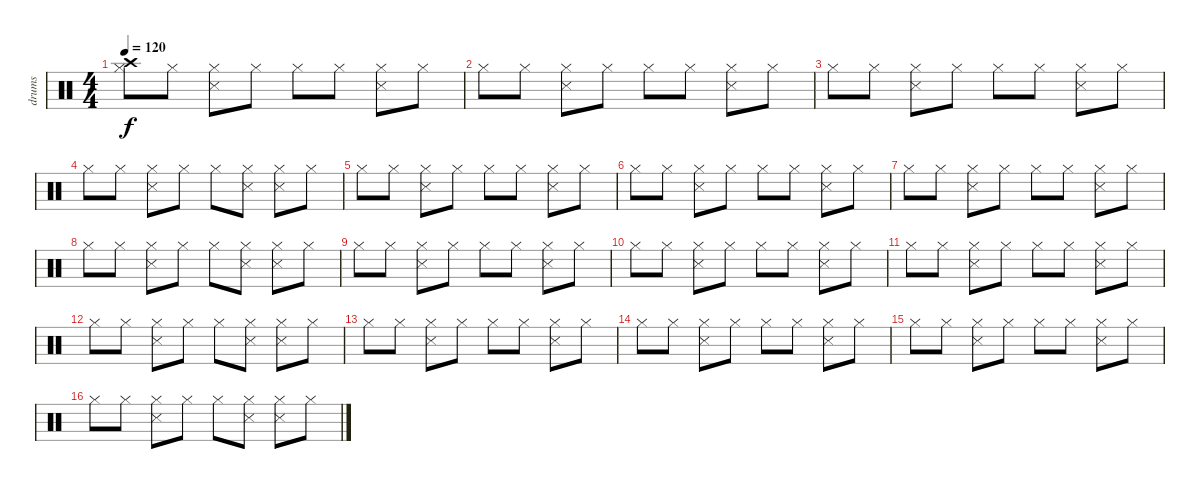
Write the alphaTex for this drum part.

\track ("drums" "drums") {instrument percussion}
\staff {score}
\articulation defaults
\ts (4 4)
\tempo 120
\clef neutral
\ks c
("Crash high (hit)" "Hi-Hat (closed)").8{dy f} "Hi-Hat (closed)".8 ("Snare (side stick) 3" "Hi-Hat (closed)").8 "Hi-Hat (closed)".8 "Hi-Hat (closed)".8 "Hi-Hat (closed)".8 ("Snare (side stick) 3" "Hi-Hat (closed)").8 "Hi-Hat (closed)".8 |
"Hi-Hat (closed)".8 "Hi-Hat (closed)".8 ("Snare (side stick) 3" "Hi-Hat (closed)").8 "Hi-Hat (closed)".8 "Hi-Hat (closed)".8 "Hi-Hat (closed)".8 ("Snare (side stick) 3" "Hi-Hat (closed)").8 "Hi-Hat (closed)".8 |
"Hi-Hat (closed)".8 "Hi-Hat (closed)".8 ("Snare (side stick) 3" "Hi-Hat (closed)").8 "Hi-Hat (closed)".8 "Hi-Hat (closed)".8 "Hi-Hat (closed)".8 ("Snare (side stick) 3" "Hi-Hat (closed)").8 "Hi-Hat (closed)".8 |
"Hi-Hat (closed)".8 "Hi-Hat (closed)".8 ("Snare (side stick) 3" "Hi-Hat (closed)").8 "Hi-Hat (closed)".8 "Hi-Hat (closed)".8 ("Snare (side stick) 3" "Hi-Hat (closed)").8 ("Snare (side stick) 3" "Hi-Hat (closed)").8 "Hi-Hat (closed)".8 |
"Hi-Hat (closed)".8 "Hi-Hat (closed)".8 ("Snare (side stick) 3" "Hi-Hat (closed)").8 "Hi-Hat (closed)".8 "Hi-Hat (closed)".8 "Hi-Hat (closed)".8 ("Snare (side stick) 3" "Hi-Hat (closed)").8 "Hi-Hat (closed)".8 |
"Hi-Hat (closed)".8 "Hi-Hat (closed)".8 ("Snare (side stick) 3" "Hi-Hat (closed)").8 "Hi-Hat (closed)".8 "Hi-Hat (closed)".8 "Hi-Hat (closed)".8 ("Snare (side stick) 3" "Hi-Hat (closed)").8 "Hi-Hat (closed)".8 |
"Hi-Hat (closed)".8 "Hi-Hat (closed)".8 ("Snare (side stick) 3" "Hi-Hat (closed)").8 "Hi-Hat (closed)".8 "Hi-Hat (closed)".8 "Hi-Hat (closed)".8 ("Snare (side stick) 3" "Hi-Hat (closed)").8 "Hi-Hat (closed)".8 |
"Hi-Hat (closed)".8 "Hi-Hat (closed)".8 ("Snare (side stick) 3" "Hi-Hat (closed)").8 "Hi-Hat (closed)".8 "Hi-Hat (closed)".8 ("Snare (side stick) 3" "Hi-Hat (closed)").8 ("Snare (side stick) 3" "Hi-Hat (closed)").8 "Hi-Hat (closed)".8 |
"Hi-Hat (closed)".8 "Hi-Hat (closed)".8 ("Snare (side stick) 3" "Hi-Hat (closed)").8 "Hi-Hat (closed)".8 "Hi-Hat (closed)".8 "Hi-Hat (closed)".8 ("Snare (side stick) 3" "Hi-Hat (closed)").8 "Hi-Hat (closed)".8 |
"Hi-Hat (closed)".8 "Hi-Hat (closed)".8 ("Snare (side stick) 3" "Hi-Hat (closed)").8 "Hi-Hat (closed)".8 "Hi-Hat (closed)".8 "Hi-Hat (closed)".8 ("Snare (side stick) 3" "Hi-Hat (closed)").8 "Hi-Hat (closed)".8 |
"Hi-Hat (closed)".8 "Hi-Hat (closed)".8 ("Snare (side stick) 3" "Hi-Hat (closed)").8 "Hi-Hat (closed)".8 "Hi-Hat (closed)".8 "Hi-Hat (closed)".8 ("Snare (side stick) 3" "Hi-Hat (closed)").8 "Hi-Hat (closed)".8 |
"Hi-Hat (closed)".8 "Hi-Hat (closed)".8 ("Snare (side stick) 3" "Hi-Hat (closed)").8 "Hi-Hat (closed)".8 "Hi-Hat (closed)".8 ("Snare (side stick) 3" "Hi-Hat (closed)").8 ("Snare (side stick) 3" "Hi-Hat (closed)").8 "Hi-Hat (closed)".8 |
"Hi-Hat (closed)".8 "Hi-Hat (closed)".8 ("Snare (side stick) 3" "Hi-Hat (closed)").8 "Hi-Hat (closed)".8 "Hi-Hat (closed)".8 "Hi-Hat (closed)".8 ("Snare (side stick) 3" "Hi-Hat (closed)").8 "Hi-Hat (closed)".8 |
"Hi-Hat (closed)".8 "Hi-Hat (closed)".8 ("Snare (side stick) 3" "Hi-Hat (closed)").8 "Hi-Hat (closed)".8 "Hi-Hat (closed)".8 "Hi-Hat (closed)".8 ("Snare (side stick) 3" "Hi-Hat (closed)").8 "Hi-Hat (closed)".8 |
"Hi-Hat (closed)".8 "Hi-Hat (closed)".8 ("Snare (side stick) 3" "Hi-Hat (closed)").8 "Hi-Hat (closed)".8 "Hi-Hat (closed)".8 "Hi-Hat (closed)".8 ("Snare (side stick) 3" "Hi-Hat (closed)").8 "Hi-Hat (closed)".8 |
"Hi-Hat (closed)".8 "Hi-Hat (closed)".8 ("Snare (side stick) 3" "Hi-Hat (closed)").8 "Hi-Hat (closed)".8 "Hi-Hat (closed)".8 ("Snare (side stick) 3" "Hi-Hat (closed)").8 ("Snare (side stick) 3" "Hi-Hat (closed)").8 "Hi-Hat (closed)".8
